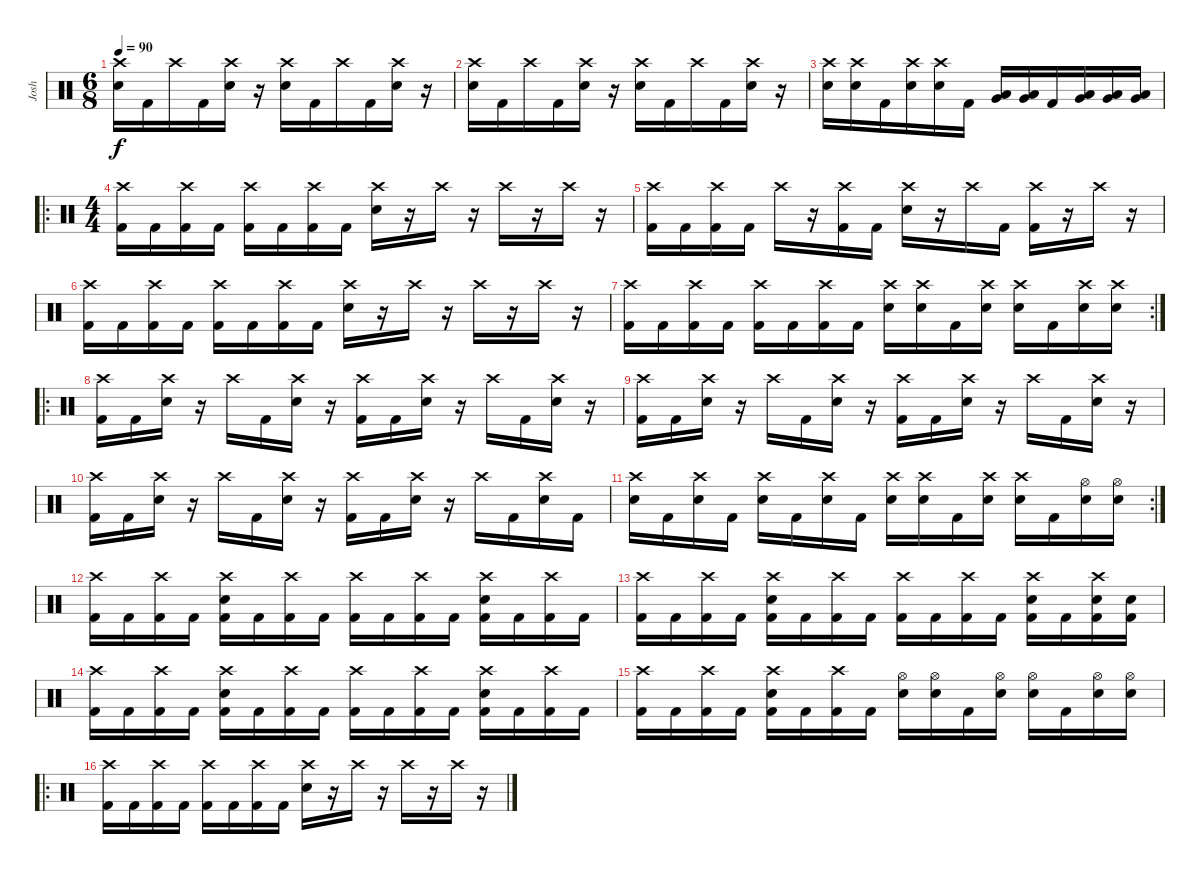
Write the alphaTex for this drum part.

\track ("Josh" "Josh") {instrument percussion}
\staff {score}
\articulation defaults
\ts (6 8)
\tempo 90
\clef neutral
\ks c
("Crash high (hit)" "Electric Snare (hit)").16{dy f} "Kick (hit) 2".16 "Crash high (hit)".16 "Kick (hit) 2".16 ("Crash high (hit)" "Electric Snare (hit)").16 r.16 ("Crash high (hit)" "Electric Snare (hit)").16 "Kick (hit) 2".16 "Crash high (hit)".16 "Kick (hit) 2".16 ("Crash high (hit)" "Electric Snare (hit)").16 r.16 |
("Crash high (hit)" "Electric Snare (hit)").16{volume 8} "Kick (hit) 2".16 "Crash high (hit)".16 "Kick (hit) 2".16 ("Crash high (hit)" "Electric Snare (hit)").16 r.16 ("Crash high (hit)" "Electric Snare (hit)").16 "Kick (hit) 2".16 "Crash high (hit)".16 "Kick (hit) 2".16 ("Crash high (hit)" "Electric Snare (hit)").16 r.16 |
("Crash high (hit)" "Electric Snare (hit)").16{volume 13} ("Crash high (hit)" "Electric Snare (hit)").16 "Kick (hit) 2".16 ("Crash high (hit)" "Electric Snare (hit)").16 ("Crash high (hit)" "Electric Snare (hit)").16 "Kick (hit) 2".16 ("Low Tom (hit)" "Very Low Tom (hit)").16 ("Low Tom (hit)" "Very Low Tom (hit)").16 "Kick (hit) 2".16 ("Low Tom (hit)" "Very Low Tom (hit)").16 ("Low Tom (hit)" "Very Low Tom (hit)").16 ("Low Tom (hit)" "Very Low Tom (hit)").16 |
\ro
\ts (4 4)
("Crash high (hit)" "Kick (hit) 2").16 "Kick (hit) 2".16 ("Crash high (hit)" "Kick (hit) 2").16 "Kick (hit) 2".16 ("Crash high (hit)" "Kick (hit) 2").16 "Kick (hit) 2".16 ("Crash high (hit)" "Kick (hit) 2").16 "Kick (hit) 2".16 ("Crash high (hit)" "Electric Snare (hit)").16 r.16 "Crash high (hit)".16 r.16 "Crash high (hit)".16 r.16 "Crash high (hit)".16 r.16 |
("Crash high (hit)" "Kick (hit) 2").16 "Kick (hit) 2".16 ("Crash high (hit)" "Kick (hit) 2").16 "Kick (hit) 2".16 "Crash high (hit)".16 r.16 ("Crash high (hit)" "Kick (hit) 2").16 "Kick (hit) 2".16 ("Crash high (hit)" "Electric Snare (hit)").16 r.16 "Crash high (hit)".16 "Kick (hit) 2".16 ("Crash high (hit)" "Kick (hit) 2").16 r.16 "Crash high (hit)".16 r.16 |
("Crash high (hit)" "Kick (hit) 2").16 "Kick (hit) 2".16 ("Crash high (hit)" "Kick (hit) 2").16 "Kick (hit) 2".16 ("Crash high (hit)" "Kick (hit) 2").16 "Kick (hit) 2".16 ("Crash high (hit)" "Kick (hit) 2").16 "Kick (hit) 2".16 ("Crash high (hit)" "Electric Snare (hit)").16 r.16 "Crash high (hit)".16 r.16 "Crash high (hit)".16 r.16 "Crash high (hit)".16 r.16 |
\rc 2
("Crash high (hit)" "Kick (hit) 2").16 "Kick (hit) 2".16 ("Crash high (hit)" "Kick (hit) 2").16 "Kick (hit) 2".16 ("Crash high (hit)" "Kick (hit) 2").16 "Kick (hit) 2".16 ("Crash high (hit)" "Kick (hit) 2").16 "Kick (hit) 2".16 ("Crash high (hit)" "Electric Snare (hit)").16 ("Crash high (hit)" "Electric Snare (hit)").16 "Kick (hit) 2".16 ("Crash high (hit)" "Electric Snare (hit)").16 ("Crash high (hit)" "Electric Snare (hit)").16 "Kick (hit) 2".16 ("Crash high (hit)" "Electric Snare (hit)").16 ("Crash high (hit)" "Electric Snare (hit)").16 |
\ro
("Crash high (hit)" "Kick (hit) 2").16 "Kick (hit) 2".16 ("Crash high (hit)" "Electric Snare (hit)").16 r.16 "Crash high (hit)".16 "Kick (hit) 2".16 ("Crash high (hit)" "Electric Snare (hit)").16 r.16 ("Crash high (hit)" "Kick (hit) 2").16 "Kick (hit) 2".16 ("Crash high (hit)" "Electric Snare (hit)").16 r.16 "Crash high (hit)".16 "Kick (hit) 2".16 ("Crash high (hit)" "Electric Snare (hit)").16 r.16 |
("Crash high (hit)" "Kick (hit) 2").16 "Kick (hit) 2".16 ("Crash high (hit)" "Electric Snare (hit)").16 r.16 "Crash high (hit)".16 "Kick (hit) 2".16 ("Crash high (hit)" "Electric Snare (hit)").16 r.16 ("Crash high (hit)" "Kick (hit) 2").16 "Kick (hit) 2".16 ("Crash high (hit)" "Electric Snare (hit)").16 r.16 "Crash high (hit)".16 "Kick (hit) 2".16 ("Crash high (hit)" "Electric Snare (hit)").16 r.16 |
("Crash high (hit)" "Kick (hit) 2").16 "Kick (hit) 2".16 ("Crash high (hit)" "Electric Snare (hit)").16 r.16 "Crash high (hit)".16 "Kick (hit) 2".16 ("Crash high (hit)" "Electric Snare (hit)").16 r.16 ("Crash high (hit)" "Kick (hit) 2").16 "Kick (hit) 2".16 ("Crash high (hit)" "Electric Snare (hit)").16 r.16 "Crash high (hit)".16 "Kick (hit) 2".16 ("Crash high (hit)" "Electric Snare (hit)").16 "Kick (hit) 2".16 |
\rc 2
("Crash high (hit)" "Electric Snare (hit)").16 "Kick (hit) 2".16 ("Crash high (hit)" "Electric Snare (hit)").16 "Kick (hit) 2".16 ("Crash high (hit)" "Electric Snare (hit)").16 "Kick (hit) 2".16 ("Crash high (hit)" "Electric Snare (hit)").16 "Kick (hit) 2".16 ("Crash high (hit)" "Electric Snare (hit)").16 ("Crash high (hit)" "Electric Snare (hit)").16 "Kick (hit) 2".16 ("Crash high (hit)" "Electric Snare (hit)").16 ("Crash high (hit)" "Electric Snare (hit)").16 "Kick (hit) 2".16 ("Hi-Hat (open)" "Electric Snare (hit)").16 ("Hi-Hat (open)" "Electric Snare (hit)").16 |
("Crash high (hit)" "Kick (hit) 2").16 "Kick (hit) 2".16 ("Crash high (hit)" "Kick (hit) 2").16 "Kick (hit) 2".16 ("Crash high (hit)" "Electric Snare (hit)" "Kick (hit) 2").16 "Kick (hit) 2".16 ("Crash high (hit)" "Kick (hit) 2").16 "Kick (hit) 2".16 ("Crash high (hit)" "Kick (hit) 2").16 "Kick (hit) 2".16 ("Crash high (hit)" "Kick (hit) 2").16 "Kick (hit) 2".16 ("Crash high (hit)" "Electric Snare (hit)" "Kick (hit) 2").16 "Kick (hit) 2".16 ("Crash high (hit)" "Kick (hit) 2").16 "Kick (hit) 2".16 |
("Crash high (hit)" "Kick (hit) 2").16 "Kick (hit) 2".16 ("Crash high (hit)" "Kick (hit) 2").16 "Kick (hit) 2".16 ("Crash high (hit)" "Electric Snare (hit)" "Kick (hit) 2").16 "Kick (hit) 2".16 ("Crash high (hit)" "Kick (hit) 2").16 "Kick (hit) 2".16 ("Crash high (hit)" "Kick (hit) 2").16 "Kick (hit) 2".16 ("Crash high (hit)" "Kick (hit) 2").16 "Kick (hit) 2".16 ("Crash high (hit)" "Electric Snare (hit)" "Kick (hit) 2").16 "Kick (hit) 2".16 ("Crash high (hit)" "Electric Snare (hit)" "Kick (hit) 2").16 ("Electric Snare (hit)" "Kick (hit) 2").16 |
("Crash high (hit)" "Kick (hit) 2").16 "Kick (hit) 2".16 ("Crash high (hit)" "Kick (hit) 2").16 "Kick (hit) 2".16 ("Crash high (hit)" "Electric Snare (hit)" "Kick (hit) 2").16 "Kick (hit) 2".16 ("Crash high (hit)" "Kick (hit) 2").16 "Kick (hit) 2".16 ("Crash high (hit)" "Kick (hit) 2").16 "Kick (hit) 2".16 ("Crash high (hit)" "Kick (hit) 2").16 "Kick (hit) 2".16 ("Crash high (hit)" "Electric Snare (hit)" "Kick (hit) 2").16 "Kick (hit) 2".16 ("Crash high (hit)" "Kick (hit) 2").16 "Kick (hit) 2".16 |
("Crash high (hit)" "Kick (hit) 2").16 "Kick (hit) 2".16 ("Crash high (hit)" "Kick (hit) 2").16 "Kick (hit) 2".16 ("Crash high (hit)" "Electric Snare (hit)" "Kick (hit) 2").16 "Kick (hit) 2".16 ("Crash high (hit)" "Kick (hit) 2").16 "Kick (hit) 2".16 ("Hi-Hat (open)" "Electric Snare (hit)").16 ("Hi-Hat (open)" "Electric Snare (hit)").16 "Kick (hit) 2".16 ("Hi-Hat (open)" "Electric Snare (hit)").16 ("Hi-Hat (open)" "Electric Snare (hit)").16 "Kick (hit) 2".16 ("Hi-Hat (open)" "Electric Snare (hit)").16 ("Hi-Hat (open)" "Electric Snare (hit)").16 |
\ro
("Crash high (hit)" "Kick (hit) 2").16 "Kick (hit) 2".16 ("Crash high (hit)" "Kick (hit) 2").16 "Kick (hit) 2".16 ("Crash high (hit)" "Kick (hit) 2").16 "Kick (hit) 2".16 ("Crash high (hit)" "Kick (hit) 2").16 "Kick (hit) 2".16 ("Crash high (hit)" "Electric Snare (hit)").16 r.16 "Crash high (hit)".16 r.16 "Crash high (hit)".16 r.16 "Crash high (hit)".16 r.16
